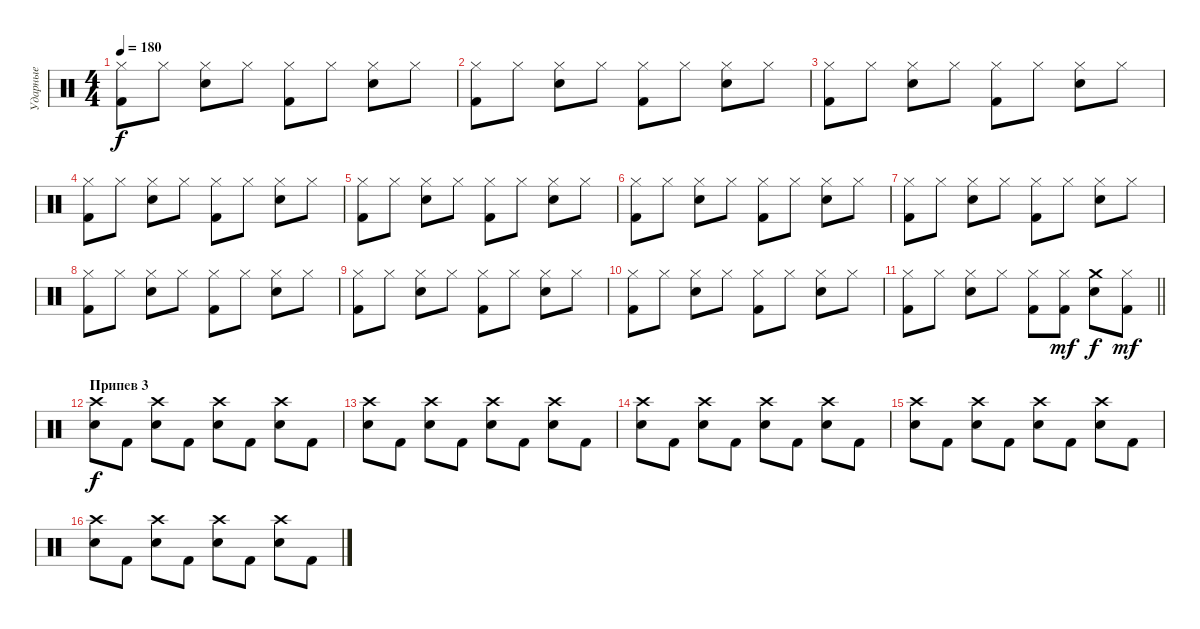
\track ("Ударные" "Ударные") {instrument percussion}
\staff {score}
\articulation defaults
\ts (4 4)
\tempo 180
\clef neutral
\ks c
("Hi-Hat (closed)" "Kick (hit) 2").8{dy f} "Hi-Hat (closed)".8 ("Hi-Hat (closed)" "Snare (hit) 2").8 "Hi-Hat (closed)".8 ("Hi-Hat (closed)" "Kick (hit) 2").8 "Hi-Hat (closed)".8 ("Hi-Hat (closed)" "Snare (hit) 2").8 "Hi-Hat (closed)".8 |
("Hi-Hat (closed)" "Kick (hit) 2").8 "Hi-Hat (closed)".8 ("Hi-Hat (closed)" "Snare (hit) 2").8 "Hi-Hat (closed)".8 ("Hi-Hat (closed)" "Kick (hit) 2").8 "Hi-Hat (closed)".8 ("Hi-Hat (closed)" "Snare (hit) 2").8 "Hi-Hat (closed)".8 |
("Hi-Hat (closed)" "Kick (hit) 2").8 "Hi-Hat (closed)".8 ("Hi-Hat (closed)" "Snare (hit) 2").8 "Hi-Hat (closed)".8 ("Hi-Hat (closed)" "Kick (hit) 2").8 "Hi-Hat (closed)".8 ("Hi-Hat (closed)" "Snare (hit) 2").8 "Hi-Hat (closed)".8 |
("Hi-Hat (closed)" "Kick (hit) 2").8 "Hi-Hat (closed)".8 ("Hi-Hat (closed)" "Snare (hit) 2").8 "Hi-Hat (closed)".8 ("Hi-Hat (closed)" "Kick (hit) 2").8 "Hi-Hat (closed)".8 ("Hi-Hat (closed)" "Snare (hit) 2").8 "Hi-Hat (closed)".8 |
("Hi-Hat (closed)" "Kick (hit) 2").8 "Hi-Hat (closed)".8 ("Hi-Hat (closed)" "Snare (hit) 2").8 "Hi-Hat (closed)".8 ("Hi-Hat (closed)" "Kick (hit) 2").8 "Hi-Hat (closed)".8 ("Hi-Hat (closed)" "Snare (hit) 2").8 "Hi-Hat (closed)".8 |
("Hi-Hat (closed)" "Kick (hit) 2").8 "Hi-Hat (closed)".8 ("Hi-Hat (closed)" "Snare (hit) 2").8 "Hi-Hat (closed)".8 ("Hi-Hat (closed)" "Kick (hit) 2").8 "Hi-Hat (closed)".8 ("Hi-Hat (closed)" "Snare (hit) 2").8 "Hi-Hat (closed)".8 |
("Hi-Hat (closed)" "Kick (hit) 2").8 "Hi-Hat (closed)".8 ("Hi-Hat (closed)" "Snare (hit) 2").8 "Hi-Hat (closed)".8 ("Hi-Hat (closed)" "Kick (hit) 2").8 "Hi-Hat (closed)".8 ("Hi-Hat (closed)" "Snare (hit) 2").8 "Hi-Hat (closed)".8 |
("Hi-Hat (closed)" "Kick (hit) 2").8 "Hi-Hat (closed)".8 ("Hi-Hat (closed)" "Snare (hit) 2").8 "Hi-Hat (closed)".8 ("Hi-Hat (closed)" "Kick (hit) 2").8 "Hi-Hat (closed)".8 ("Hi-Hat (closed)" "Snare (hit) 2").8 "Hi-Hat (closed)".8 |
("Hi-Hat (closed)" "Kick (hit) 2").8 "Hi-Hat (closed)".8 ("Hi-Hat (closed)" "Snare (hit) 2").8 "Hi-Hat (closed)".8 ("Hi-Hat (closed)" "Kick (hit) 2").8 "Hi-Hat (closed)".8 ("Hi-Hat (closed)" "Snare (hit) 2").8 "Hi-Hat (closed)".8 |
("Hi-Hat (closed)" "Kick (hit) 2").8 "Hi-Hat (closed)".8 ("Hi-Hat (closed)" "Snare (hit) 2").8 "Hi-Hat (closed)".8 ("Hi-Hat (closed)" "Kick (hit) 2").8 "Hi-Hat (closed)".8 ("Hi-Hat (closed)" "Snare (hit) 2").8 "Hi-Hat (closed)".8 |
\barLineRight lightlight
("Hi-Hat (closed)" "Kick (hit) 2").8 "Hi-Hat (closed)".8 ("Hi-Hat (closed)" "Snare (hit) 2").8 "Hi-Hat (closed)".8 ("Hi-Hat (closed)" "Kick (hit) 2").8 ("Hi-Hat (closed)" "Kick (hit) 2").8{dy mf} ("Crash medium (hit)" "Snare (hit) 2").8{dy f} ("Hi-Hat (closed)" "Kick (hit) 2").8{dy mf} |
\section ("" "Припев 3")
("Crash high (hit)" "Snare (hit) 2").8{dy f} "Kick (hit) 2".8 ("Crash high (hit)" "Snare (hit) 2").8 "Kick (hit) 2".8 ("Crash high (hit)" "Snare (hit) 2").8 "Kick (hit) 2".8 ("Crash high (hit)" "Snare (hit) 2").8 "Kick (hit) 2".8 |
("Crash high (hit)" "Snare (hit) 2").8 "Kick (hit) 2".8 ("Crash high (hit)" "Snare (hit) 2").8 "Kick (hit) 2".8 ("Crash high (hit)" "Snare (hit) 2").8 "Kick (hit) 2".8 ("Crash high (hit)" "Snare (hit) 2").8 "Kick (hit) 2".8 |
("Crash high (hit)" "Snare (hit) 2").8 "Kick (hit) 2".8 ("Crash high (hit)" "Snare (hit) 2").8 "Kick (hit) 2".8 ("Crash high (hit)" "Snare (hit) 2").8 "Kick (hit) 2".8 ("Crash high (hit)" "Snare (hit) 2").8 "Kick (hit) 2".8 |
("Crash high (hit)" "Snare (hit) 2").8 "Kick (hit) 2".8 ("Crash high (hit)" "Snare (hit) 2").8 "Kick (hit) 2".8 ("Crash high (hit)" "Snare (hit) 2").8 "Kick (hit) 2".8 ("Crash high (hit)" "Snare (hit) 2").8 "Kick (hit) 2".8 |
("Crash high (hit)" "Snare (hit) 2").8 "Kick (hit) 2".8 ("Crash high (hit)" "Snare (hit) 2").8 "Kick (hit) 2".8 ("Crash high (hit)" "Snare (hit) 2").8 "Kick (hit) 2".8 ("Crash high (hit)" "Snare (hit) 2").8 "Kick (hit) 2".8
